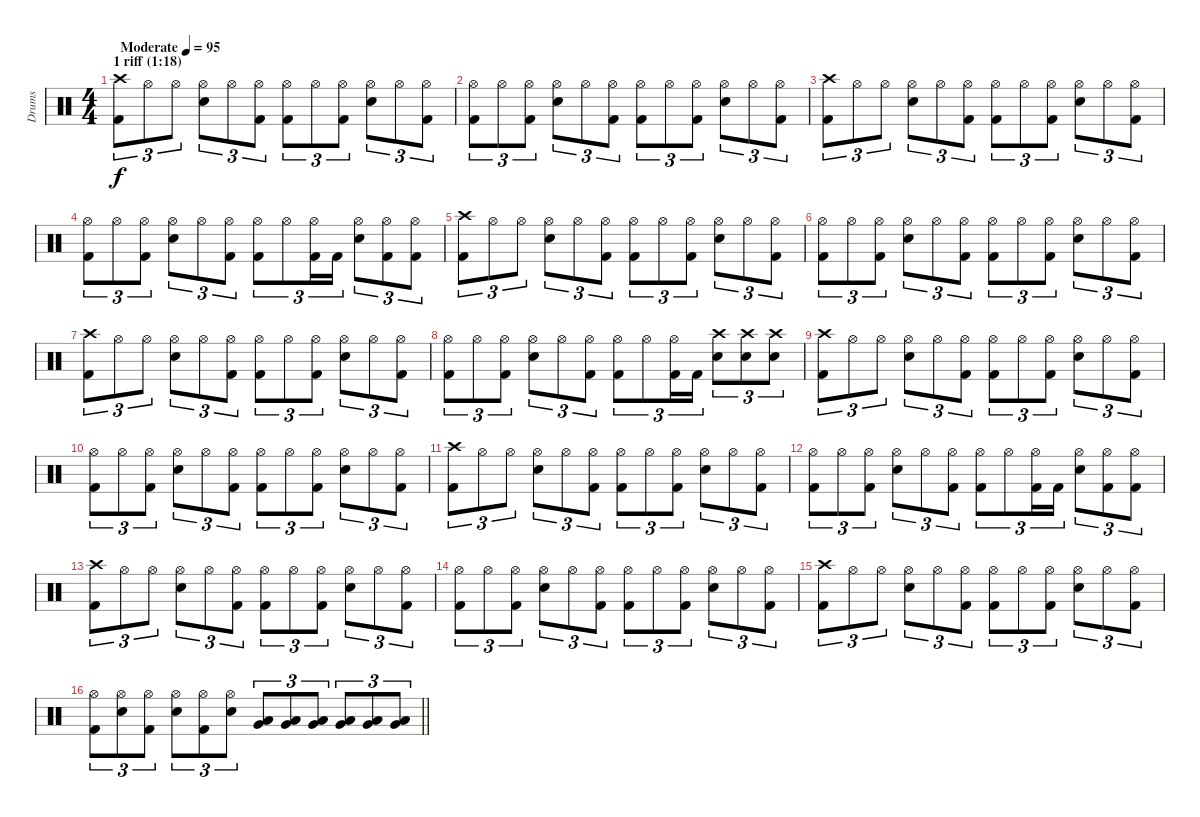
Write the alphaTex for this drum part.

\track ("Drums" "Drums") {instrument percussion}
\staff {score}
\articulation defaults
\ts (4 4)
\section ("" "1 riff (1:18)")
\tempo (95 "Moderate")
\clef neutral
\ks c
("Crash high (hit)" "Kick (hit) 2").8{tu (3 2) dy f} "Hi-Hat (open)".8{tu (3 2)} "Hi-Hat (open)".8{tu (3 2)} ("Hi-Hat (open)" "Snare (hit) 2").8{tu (3 2)} "Hi-Hat (open)".8{tu (3 2)} ("Hi-Hat (open)" "Kick (hit) 2").8{tu (3 2)} ("Hi-Hat (open)" "Kick (hit) 2").8{tu (3 2)} "Hi-Hat (open)".8{tu (3 2)} ("Hi-Hat (open)" "Kick (hit) 2").8{tu (3 2)} ("Hi-Hat (open)" "Snare (hit) 2").8{tu (3 2)} "Hi-Hat (open)".8{tu (3 2)} ("Hi-Hat (open)" "Kick (hit) 2").8{tu (3 2)} |
("Hi-Hat (open)" "Kick (hit) 2").8{tu (3 2)} "Hi-Hat (open)".8{tu (3 2)} ("Hi-Hat (open)" "Kick (hit) 2").8{tu (3 2)} ("Hi-Hat (open)" "Snare (hit) 2").8{tu (3 2)} "Hi-Hat (open)".8{tu (3 2)} ("Hi-Hat (open)" "Kick (hit) 2").8{tu (3 2)} ("Hi-Hat (open)" "Kick (hit) 2").8{tu (3 2)} "Hi-Hat (open)".8{tu (3 2)} ("Hi-Hat (open)" "Kick (hit) 2").8{tu (3 2)} ("Hi-Hat (open)" "Snare (hit) 2").8{tu (3 2)} "Hi-Hat (open)".8{tu (3 2)} ("Hi-Hat (open)" "Kick (hit) 2").8{tu (3 2)} |
("Crash high (hit)" "Kick (hit) 2").8{tu (3 2)} "Hi-Hat (open)".8{tu (3 2)} "Hi-Hat (open)".8{tu (3 2)} ("Hi-Hat (open)" "Snare (hit) 2").8{tu (3 2)} "Hi-Hat (open)".8{tu (3 2)} ("Hi-Hat (open)" "Kick (hit) 2").8{tu (3 2)} ("Hi-Hat (open)" "Kick (hit) 2").8{tu (3 2)} "Hi-Hat (open)".8{tu (3 2)} ("Hi-Hat (open)" "Kick (hit) 2").8{tu (3 2)} ("Hi-Hat (open)" "Snare (hit) 2").8{tu (3 2)} "Hi-Hat (open)".8{tu (3 2)} ("Hi-Hat (open)" "Kick (hit) 2").8{tu (3 2)} |
("Hi-Hat (open)" "Kick (hit) 2").8{tu (3 2)} "Hi-Hat (open)".8{tu (3 2)} ("Hi-Hat (open)" "Kick (hit) 2").8{tu (3 2)} ("Hi-Hat (open)" "Snare (hit) 2").8{tu (3 2)} "Hi-Hat (open)".8{tu (3 2)} ("Hi-Hat (open)" "Kick (hit) 2").8{tu (3 2)} ("Hi-Hat (open)" "Kick (hit) 2").8{tu (3 2)} "Hi-Hat (open)".8{tu (3 2)} ("Hi-Hat (open)" "Kick (hit) 2").16{tu (3 2)} "Kick (hit) 2".16{tu (3 2)} ("Hi-Hat (open)" "Snare (hit) 2").8{tu (3 2)} ("Hi-Hat (open)" "Kick (hit) 2").8{tu (3 2)} ("Hi-Hat (open)" "Kick (hit) 2").8{tu (3 2)} |
("Crash high (hit)" "Kick (hit) 2").8{tu (3 2)} "Hi-Hat (open)".8{tu (3 2)} "Hi-Hat (open)".8{tu (3 2)} ("Hi-Hat (open)" "Snare (hit) 2").8{tu (3 2)} "Hi-Hat (open)".8{tu (3 2)} ("Hi-Hat (open)" "Kick (hit) 2").8{tu (3 2)} ("Hi-Hat (open)" "Kick (hit) 2").8{tu (3 2)} "Hi-Hat (open)".8{tu (3 2)} ("Hi-Hat (open)" "Kick (hit) 2").8{tu (3 2)} ("Hi-Hat (open)" "Snare (hit) 2").8{tu (3 2)} "Hi-Hat (open)".8{tu (3 2)} ("Hi-Hat (open)" "Kick (hit) 2").8{tu (3 2)} |
("Hi-Hat (open)" "Kick (hit) 2").8{tu (3 2)} "Hi-Hat (open)".8{tu (3 2)} ("Hi-Hat (open)" "Kick (hit) 2").8{tu (3 2)} ("Hi-Hat (open)" "Snare (hit) 2").8{tu (3 2)} "Hi-Hat (open)".8{tu (3 2)} ("Hi-Hat (open)" "Kick (hit) 2").8{tu (3 2)} ("Hi-Hat (open)" "Kick (hit) 2").8{tu (3 2)} "Hi-Hat (open)".8{tu (3 2)} ("Hi-Hat (open)" "Kick (hit) 2").8{tu (3 2)} ("Hi-Hat (open)" "Snare (hit) 2").8{tu (3 2)} "Hi-Hat (open)".8{tu (3 2)} ("Hi-Hat (open)" "Kick (hit) 2").8{tu (3 2)} |
("Crash high (hit)" "Kick (hit) 2").8{tu (3 2)} "Hi-Hat (open)".8{tu (3 2)} "Hi-Hat (open)".8{tu (3 2)} ("Hi-Hat (open)" "Snare (hit) 2").8{tu (3 2)} "Hi-Hat (open)".8{tu (3 2)} ("Hi-Hat (open)" "Kick (hit) 2").8{tu (3 2)} ("Hi-Hat (open)" "Kick (hit) 2").8{tu (3 2)} "Hi-Hat (open)".8{tu (3 2)} ("Hi-Hat (open)" "Kick (hit) 2").8{tu (3 2)} ("Hi-Hat (open)" "Snare (hit) 2").8{tu (3 2)} "Hi-Hat (open)".8{tu (3 2)} ("Hi-Hat (open)" "Kick (hit) 2").8{tu (3 2)} |
("Hi-Hat (open)" "Kick (hit) 2").8{tu (3 2)} "Hi-Hat (open)".8{tu (3 2)} ("Hi-Hat (open)" "Kick (hit) 2").8{tu (3 2)} ("Hi-Hat (open)" "Snare (hit) 2").8{tu (3 2)} "Hi-Hat (open)".8{tu (3 2)} ("Hi-Hat (open)" "Kick (hit) 2").8{tu (3 2)} ("Hi-Hat (open)" "Kick (hit) 2").8{tu (3 2)} "Hi-Hat (open)".8{tu (3 2)} ("Hi-Hat (open)" "Kick (hit) 2").16{tu (3 2)} "Kick (hit) 2".16{tu (3 2)} ("Crash high (hit)" "Snare (hit) 2").8{tu (3 2)} ("Crash high (hit)" "Snare (hit) 2").8{tu (3 2)} ("Crash high (hit)" "Snare (hit) 2").8{tu (3 2)} |
("Crash high (hit)" "Kick (hit) 2").8{tu (3 2)} "Hi-Hat (open)".8{tu (3 2)} "Hi-Hat (open)".8{tu (3 2)} ("Hi-Hat (open)" "Snare (hit) 2").8{tu (3 2)} "Hi-Hat (open)".8{tu (3 2)} ("Hi-Hat (open)" "Kick (hit) 2").8{tu (3 2)} ("Hi-Hat (open)" "Kick (hit) 2").8{tu (3 2)} "Hi-Hat (open)".8{tu (3 2)} ("Hi-Hat (open)" "Kick (hit) 2").8{tu (3 2)} ("Hi-Hat (open)" "Snare (hit) 2").8{tu (3 2)} "Hi-Hat (open)".8{tu (3 2)} ("Hi-Hat (open)" "Kick (hit) 2").8{tu (3 2)} |
("Hi-Hat (open)" "Kick (hit) 2").8{tu (3 2)} "Hi-Hat (open)".8{tu (3 2)} ("Hi-Hat (open)" "Kick (hit) 2").8{tu (3 2)} ("Hi-Hat (open)" "Snare (hit) 2").8{tu (3 2)} "Hi-Hat (open)".8{tu (3 2)} ("Hi-Hat (open)" "Kick (hit) 2").8{tu (3 2)} ("Hi-Hat (open)" "Kick (hit) 2").8{tu (3 2)} "Hi-Hat (open)".8{tu (3 2)} ("Hi-Hat (open)" "Kick (hit) 2").8{tu (3 2)} ("Hi-Hat (open)" "Snare (hit) 2").8{tu (3 2)} "Hi-Hat (open)".8{tu (3 2)} ("Hi-Hat (open)" "Kick (hit) 2").8{tu (3 2)} |
("Crash high (hit)" "Kick (hit) 2").8{tu (3 2)} "Hi-Hat (open)".8{tu (3 2)} "Hi-Hat (open)".8{tu (3 2)} ("Hi-Hat (open)" "Snare (hit) 2").8{tu (3 2)} "Hi-Hat (open)".8{tu (3 2)} ("Hi-Hat (open)" "Kick (hit) 2").8{tu (3 2)} ("Hi-Hat (open)" "Kick (hit) 2").8{tu (3 2)} "Hi-Hat (open)".8{tu (3 2)} ("Hi-Hat (open)" "Kick (hit) 2").8{tu (3 2)} ("Hi-Hat (open)" "Snare (hit) 2").8{tu (3 2)} "Hi-Hat (open)".8{tu (3 2)} ("Hi-Hat (open)" "Kick (hit) 2").8{tu (3 2)} |
("Hi-Hat (open)" "Kick (hit) 2").8{tu (3 2)} "Hi-Hat (open)".8{tu (3 2)} ("Hi-Hat (open)" "Kick (hit) 2").8{tu (3 2)} ("Hi-Hat (open)" "Snare (hit) 2").8{tu (3 2)} "Hi-Hat (open)".8{tu (3 2)} ("Hi-Hat (open)" "Kick (hit) 2").8{tu (3 2)} ("Hi-Hat (open)" "Kick (hit) 2").8{tu (3 2)} "Hi-Hat (open)".8{tu (3 2)} ("Hi-Hat (open)" "Kick (hit) 2").16{tu (3 2)} "Kick (hit) 2".16{tu (3 2)} ("Hi-Hat (open)" "Snare (hit) 2").8{tu (3 2)} ("Hi-Hat (open)" "Kick (hit) 2").8{tu (3 2)} ("Hi-Hat (open)" "Kick (hit) 2").8{tu (3 2)} |
("Crash high (hit)" "Kick (hit) 2").8{tu (3 2)} "Hi-Hat (open)".8{tu (3 2)} "Hi-Hat (open)".8{tu (3 2)} ("Hi-Hat (open)" "Snare (hit) 2").8{tu (3 2)} "Hi-Hat (open)".8{tu (3 2)} ("Hi-Hat (open)" "Kick (hit) 2").8{tu (3 2)} ("Hi-Hat (open)" "Kick (hit) 2").8{tu (3 2)} "Hi-Hat (open)".8{tu (3 2)} ("Hi-Hat (open)" "Kick (hit) 2").8{tu (3 2)} ("Hi-Hat (open)" "Snare (hit) 2").8{tu (3 2)} "Hi-Hat (open)".8{tu (3 2)} ("Hi-Hat (open)" "Kick (hit) 2").8{tu (3 2)} |
("Hi-Hat (open)" "Kick (hit) 2").8{tu (3 2)} "Hi-Hat (open)".8{tu (3 2)} ("Hi-Hat (open)" "Kick (hit) 2").8{tu (3 2)} ("Hi-Hat (open)" "Snare (hit) 2").8{tu (3 2)} "Hi-Hat (open)".8{tu (3 2)} ("Hi-Hat (open)" "Kick (hit) 2").8{tu (3 2)} ("Hi-Hat (open)" "Kick (hit) 2").8{tu (3 2)} "Hi-Hat (open)".8{tu (3 2)} ("Hi-Hat (open)" "Kick (hit) 2").8{tu (3 2)} ("Hi-Hat (open)" "Snare (hit) 2").8{tu (3 2)} "Hi-Hat (open)".8{tu (3 2)} ("Hi-Hat (open)" "Kick (hit) 2").8{tu (3 2)} |
("Crash high (hit)" "Kick (hit) 2").8{tu (3 2)} "Hi-Hat (open)".8{tu (3 2)} "Hi-Hat (open)".8{tu (3 2)} ("Hi-Hat (open)" "Snare (hit) 2").8{tu (3 2)} "Hi-Hat (open)".8{tu (3 2)} ("Hi-Hat (open)" "Kick (hit) 2").8{tu (3 2)} ("Hi-Hat (open)" "Kick (hit) 2").8{tu (3 2)} "Hi-Hat (open)".8{tu (3 2)} ("Hi-Hat (open)" "Kick (hit) 2").8{tu (3 2)} ("Hi-Hat (open)" "Snare (hit) 2").8{tu (3 2)} "Hi-Hat (open)".8{tu (3 2)} ("Hi-Hat (open)" "Kick (hit) 2").8{tu (3 2)} |
\barLineRight lightlight
("Hi-Hat (open)" "Kick (hit) 2").8{tu (3 2)} ("Hi-Hat (open)" "Snare (hit) 2").8{tu (3 2)} ("Hi-Hat (open)" "Kick (hit) 2").8{tu (3 2)} ("Hi-Hat (open)" "Snare (hit) 2").8{tu (3 2)} ("Hi-Hat (open)" "Kick (hit) 2").8{tu (3 2)} ("Hi-Hat (open)" "Snare (hit) 2").8{tu (3 2)} ("Very Low Tom (hit)" "Low Tom (hit)").8{tu (3 2)} ("Very Low Tom (hit)" "Low Tom (hit)").8{tu (3 2)} ("Very Low Tom (hit)" "Low Tom (hit)").8{tu (3 2)} ("Very Low Tom (hit)" "Low Tom (hit)").8{tu (3 2)} ("Very Low Tom (hit)" "Low Tom (hit)").8{tu (3 2)} ("Very Low Tom (hit)" "Low Tom (hit)").8{tu (3 2)}
